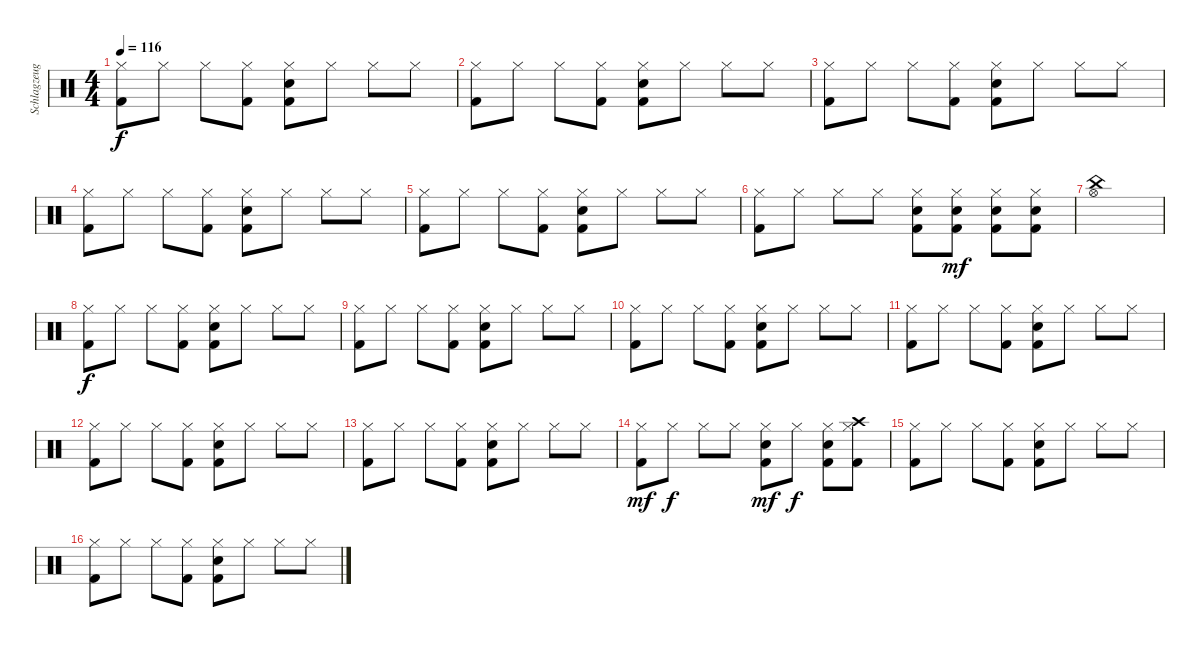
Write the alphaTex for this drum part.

\track ("Schlagzeug" "Schlagzeug") {instrument percussion}
\staff {score}
\articulation defaults
\ts (4 4)
\tempo 116
\clef neutral
\ks c
("Hi-Hat (closed)" "Kick (hit) 2").8{dy f} "Hi-Hat (closed)".8 "Hi-Hat (closed)".8 ("Hi-Hat (closed)" "Kick (hit) 2").8 ("Snare (hit) 2" "Hi-Hat (closed)" "Kick (hit) 2").8 "Hi-Hat (closed)".8 "Hi-Hat (closed)".8 "Hi-Hat (closed)".8 |
("Hi-Hat (closed)" "Kick (hit) 2").8 "Hi-Hat (closed)".8 "Hi-Hat (closed)".8 ("Hi-Hat (closed)" "Kick (hit) 2").8 ("Snare (hit) 2" "Hi-Hat (closed)" "Kick (hit) 2").8 "Hi-Hat (closed)".8 "Hi-Hat (closed)".8 "Hi-Hat (closed)".8 |
("Hi-Hat (closed)" "Kick (hit) 2").8 "Hi-Hat (closed)".8 "Hi-Hat (closed)".8 ("Hi-Hat (closed)" "Kick (hit) 2").8 ("Snare (hit) 2" "Hi-Hat (closed)" "Kick (hit) 2").8 "Hi-Hat (closed)".8 "Hi-Hat (closed)".8 "Hi-Hat (closed)".8 |
("Hi-Hat (closed)" "Kick (hit) 2").8 "Hi-Hat (closed)".8 "Hi-Hat (closed)".8 ("Hi-Hat (closed)" "Kick (hit) 2").8 ("Snare (hit) 2" "Hi-Hat (closed)" "Kick (hit) 2").8 "Hi-Hat (closed)".8 "Hi-Hat (closed)".8 "Hi-Hat (closed)".8 |
("Hi-Hat (closed)" "Kick (hit) 2").8 "Hi-Hat (closed)".8 "Hi-Hat (closed)".8 ("Hi-Hat (closed)" "Kick (hit) 2").8 ("Snare (hit) 2" "Hi-Hat (closed)" "Kick (hit) 2").8 "Hi-Hat (closed)".8 "Hi-Hat (closed)".8 "Hi-Hat (closed)".8 |
("Hi-Hat (closed)" "Kick (hit) 2").8 "Hi-Hat (closed)".8 "Hi-Hat (closed)".8 "Hi-Hat (closed)".8 ("Snare (hit) 2" "Hi-Hat (closed)" "Kick (hit) 2").8 ("Snare (hit) 2" "Hi-Hat (closed)" "Kick (hit) 2").8{dy mf} ("Snare (hit) 2" "Hi-Hat (closed)" "Kick (hit) 2").8 ("Snare (hit) 2" "Hi-Hat (closed)" "Kick (hit) 2").8 |
("Hi-Hat (open)" "China (hit)").1 |
("Hi-Hat (closed)" "Kick (hit) 2").8{dy f} "Hi-Hat (closed)".8 "Hi-Hat (closed)".8 ("Hi-Hat (closed)" "Kick (hit) 2").8 ("Snare (hit) 2" "Hi-Hat (closed)" "Kick (hit) 2").8 "Hi-Hat (closed)".8 "Hi-Hat (closed)".8 "Hi-Hat (closed)".8 |
("Hi-Hat (closed)" "Kick (hit) 2").8 "Hi-Hat (closed)".8 "Hi-Hat (closed)".8 ("Hi-Hat (closed)" "Kick (hit) 2").8 ("Snare (hit) 2" "Hi-Hat (closed)" "Kick (hit) 2").8 "Hi-Hat (closed)".8 "Hi-Hat (closed)".8 "Hi-Hat (closed)".8 |
("Hi-Hat (closed)" "Kick (hit) 2").8 "Hi-Hat (closed)".8 "Hi-Hat (closed)".8 ("Hi-Hat (closed)" "Kick (hit) 2").8 ("Snare (hit) 2" "Hi-Hat (closed)" "Kick (hit) 2").8 "Hi-Hat (closed)".8 "Hi-Hat (closed)".8 "Hi-Hat (closed)".8 |
("Hi-Hat (closed)" "Kick (hit) 2").8 "Hi-Hat (closed)".8 "Hi-Hat (closed)".8 ("Hi-Hat (closed)" "Kick (hit) 2").8 ("Snare (hit) 2" "Hi-Hat (closed)" "Kick (hit) 2").8 "Hi-Hat (closed)".8 "Hi-Hat (closed)".8 "Hi-Hat (closed)".8 |
("Hi-Hat (closed)" "Kick (hit) 2").8 "Hi-Hat (closed)".8 "Hi-Hat (closed)".8 ("Hi-Hat (closed)" "Kick (hit) 2").8 ("Snare (hit) 2" "Hi-Hat (closed)" "Kick (hit) 2").8 "Hi-Hat (closed)".8 "Hi-Hat (closed)".8 "Hi-Hat (closed)".8 |
("Hi-Hat (closed)" "Kick (hit) 2").8 "Hi-Hat (closed)".8 "Hi-Hat (closed)".8 ("Hi-Hat (closed)" "Kick (hit) 2").8 ("Snare (hit) 2" "Hi-Hat (closed)" "Kick (hit) 2").8 "Hi-Hat (closed)".8 "Hi-Hat (closed)".8 "Hi-Hat (closed)".8 |
("Hi-Hat (closed)" "Kick (hit) 2").8{dy mf} "Hi-Hat (closed)".8{dy f} "Hi-Hat (closed)".8 "Hi-Hat (closed)".8 ("Snare (hit) 2" "Hi-Hat (closed)" "Kick (hit) 2").8{dy mf} "Hi-Hat (closed)".8{dy f} ("Snare (hit) 2" "Hi-Hat (closed)" "Kick (hit) 2").8 ("Crash high (hit)" "Hi-Hat (closed)" "Kick (hit) 2").8 |
("Hi-Hat (closed)" "Kick (hit) 2").8 "Hi-Hat (closed)".8 "Hi-Hat (closed)".8 ("Hi-Hat (closed)" "Kick (hit) 2").8 ("Snare (hit) 2" "Hi-Hat (closed)" "Kick (hit) 2").8 "Hi-Hat (closed)".8 "Hi-Hat (closed)".8 "Hi-Hat (closed)".8 |
("Hi-Hat (closed)" "Kick (hit) 2").8 "Hi-Hat (closed)".8 "Hi-Hat (closed)".8 ("Hi-Hat (closed)" "Kick (hit) 2").8 ("Snare (hit) 2" "Hi-Hat (closed)" "Kick (hit) 2").8 "Hi-Hat (closed)".8 "Hi-Hat (closed)".8 "Hi-Hat (closed)".8
